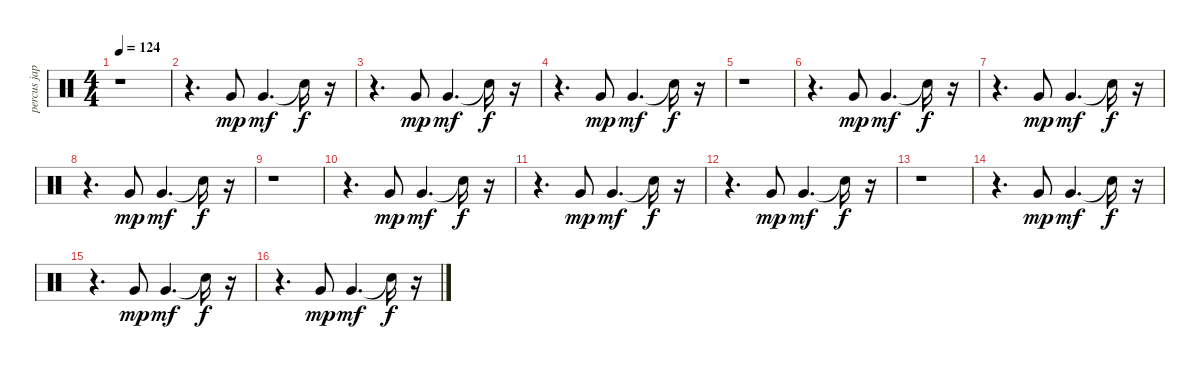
\track ("percus jap" "percus jap") {instrument percussion}
\staff {score}
\articulation defaults
\ts (4 4)
\tempo 124
\clef neutral
\ks c
r.1{dy mp} |
r.4{d} "Very Low Tom (hit)".8 "Very Low Tom (hit)".4{d dy mf} "Snare (hit)"{t}.16{dy f} r.16 |
r.4{d} "Very Low Tom (hit)".8{dy mp} "Very Low Tom (hit)".4{d dy mf} "Snare (hit)"{t}.16{dy f} r.16 |
r.4{d} "Very Low Tom (hit)".8{dy mp} "Very Low Tom (hit)".4{d dy mf} "Snare (hit)"{t}.16{dy f} r.16 |
r.1 |
r.4{d} "Very Low Tom (hit)".8{dy mp} "Very Low Tom (hit)".4{d dy mf} "Snare (hit)"{t}.16{dy f} r.16 |
r.4{d} "Very Low Tom (hit)".8{dy mp} "Very Low Tom (hit)".4{d dy mf} "Snare (hit)"{t}.16{dy f} r.16 |
r.4{d} "Very Low Tom (hit)".8{dy mp} "Very Low Tom (hit)".4{d dy mf} "Snare (hit)"{t}.16{dy f} r.16 |
r.1 |
r.4{d} "Very Low Tom (hit)".8{dy mp} "Very Low Tom (hit)".4{d dy mf} "Snare (hit)"{t}.16{dy f} r.16 |
r.4{d} "Very Low Tom (hit)".8{dy mp} "Very Low Tom (hit)".4{d dy mf} "Snare (hit)"{t}.16{dy f} r.16 |
r.4{d} "Very Low Tom (hit)".8{dy mp} "Very Low Tom (hit)".4{d dy mf} "Snare (hit)"{t}.16{dy f} r.16 |
r.1 |
r.4{d} "Very Low Tom (hit)".8{dy mp} "Very Low Tom (hit)".4{d dy mf} "Snare (hit)"{t}.16{dy f} r.16 |
r.4{d} "Very Low Tom (hit)".8{dy mp} "Very Low Tom (hit)".4{d dy mf} "Snare (hit)"{t}.16{dy f} r.16 |
r.4{d} "Very Low Tom (hit)".8{dy mp} "Very Low Tom (hit)".4{d dy mf} "Snare (hit)"{t}.16{dy f} r.16
